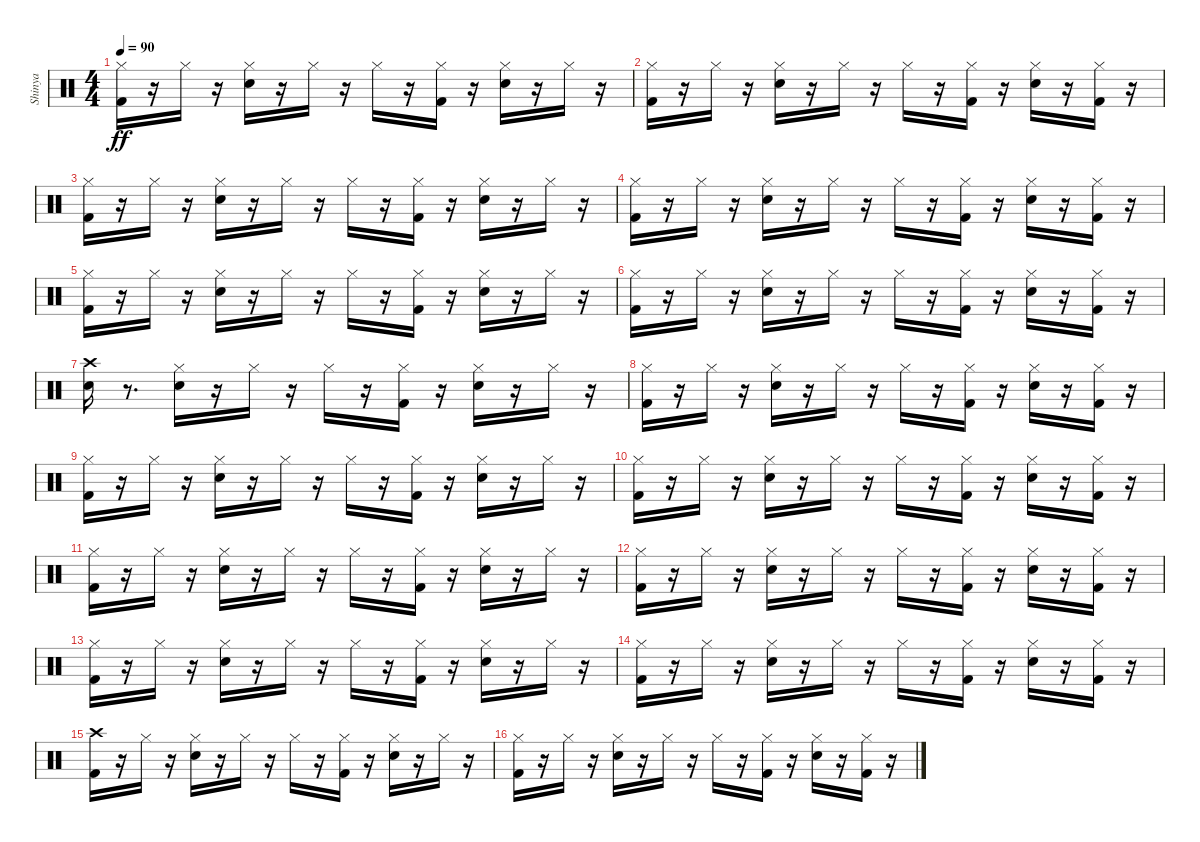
\track ("Shinya" "Shinya") {instrument percussion}
\staff {score}
\articulation defaults
\ts (4 4)
\tempo 90
\clef neutral
\ks c
("Hi-Hat (closed)" "Kick (hit) 2").16{dy ff} r.16 "Hi-Hat (closed)".16 r.16 ("Snare (hit) 2" "Hi-Hat (closed)").16 r.16 "Hi-Hat (closed)".16 r.16 "Hi-Hat (closed)".16 r.16 ("Hi-Hat (closed)" "Kick (hit) 2").16 r.16 ("Snare (hit) 2" "Hi-Hat (closed)").16 r.16 "Hi-Hat (closed)".16 r.16 |
("Hi-Hat (closed)" "Kick (hit) 2").16 r.16 "Hi-Hat (closed)".16 r.16 ("Snare (hit) 2" "Hi-Hat (closed)").16 r.16 "Hi-Hat (closed)".16 r.16 "Hi-Hat (closed)".16 r.16 ("Hi-Hat (closed)" "Kick (hit) 2").16 r.16 ("Snare (hit) 2" "Hi-Hat (closed)").16 r.16 ("Hi-Hat (closed)" "Kick (hit) 2").16 r.16 |
("Hi-Hat (closed)" "Kick (hit) 2").16 r.16 "Hi-Hat (closed)".16 r.16 ("Snare (hit) 2" "Hi-Hat (closed)").16 r.16 "Hi-Hat (closed)".16 r.16 "Hi-Hat (closed)".16 r.16 ("Hi-Hat (closed)" "Kick (hit) 2").16 r.16 ("Snare (hit) 2" "Hi-Hat (closed)").16 r.16 "Hi-Hat (closed)".16 r.16 |
("Hi-Hat (closed)" "Kick (hit) 2").16 r.16 "Hi-Hat (closed)".16 r.16 ("Snare (hit) 2" "Hi-Hat (closed)").16 r.16 "Hi-Hat (closed)".16 r.16 "Hi-Hat (closed)".16 r.16 ("Hi-Hat (closed)" "Kick (hit) 2").16 r.16 ("Snare (hit) 2" "Hi-Hat (closed)").16 r.16 ("Hi-Hat (closed)" "Kick (hit) 2").16 r.16 |
("Hi-Hat (closed)" "Kick (hit) 2").16 r.16 "Hi-Hat (closed)".16 r.16 ("Snare (hit) 2" "Hi-Hat (closed)").16 r.16 "Hi-Hat (closed)".16 r.16 "Hi-Hat (closed)".16 r.16 ("Hi-Hat (closed)" "Kick (hit) 2").16 r.16 ("Snare (hit) 2" "Hi-Hat (closed)").16 r.16 "Hi-Hat (closed)".16 r.16 |
("Hi-Hat (closed)" "Kick (hit) 2").16 r.16 "Hi-Hat (closed)".16 r.16 ("Snare (hit) 2" "Hi-Hat (closed)").16 r.16 "Hi-Hat (closed)".16 r.16 "Hi-Hat (closed)".16 r.16 ("Hi-Hat (closed)" "Kick (hit) 2").16 r.16 ("Snare (hit) 2" "Hi-Hat (closed)").16 r.16 ("Hi-Hat (closed)" "Kick (hit) 2").16 r.16 |
("Crash high (hit)" "Snare (hit)").16 r.8{d} ("Snare (hit) 2" "Hi-Hat (closed)").16 r.16 "Hi-Hat (closed)".16 r.16 "Hi-Hat (closed)".16 r.16 ("Hi-Hat (closed)" "Kick (hit) 2").16 r.16 ("Snare (hit) 2" "Hi-Hat (closed)").16 r.16 "Hi-Hat (closed)".16 r.16 |
("Hi-Hat (closed)" "Kick (hit) 2").16 r.16 "Hi-Hat (closed)".16 r.16 ("Snare (hit) 2" "Hi-Hat (closed)").16 r.16 "Hi-Hat (closed)".16 r.16 "Hi-Hat (closed)".16 r.16 ("Hi-Hat (closed)" "Kick (hit) 2").16 r.16 ("Snare (hit) 2" "Hi-Hat (closed)").16 r.16 ("Hi-Hat (closed)" "Kick (hit) 2").16 r.16 |
("Hi-Hat (closed)" "Kick (hit) 2").16 r.16 "Hi-Hat (closed)".16 r.16 ("Snare (hit) 2" "Hi-Hat (closed)").16 r.16 "Hi-Hat (closed)".16 r.16 "Hi-Hat (closed)".16 r.16 ("Hi-Hat (closed)" "Kick (hit) 2").16 r.16 ("Snare (hit) 2" "Hi-Hat (closed)").16 r.16 "Hi-Hat (closed)".16 r.16 |
("Hi-Hat (closed)" "Kick (hit) 2").16 r.16 "Hi-Hat (closed)".16 r.16 ("Snare (hit) 2" "Hi-Hat (closed)").16 r.16 "Hi-Hat (closed)".16 r.16 "Hi-Hat (closed)".16 r.16 ("Hi-Hat (closed)" "Kick (hit) 2").16 r.16 ("Snare (hit) 2" "Hi-Hat (closed)").16 r.16 ("Hi-Hat (closed)" "Kick (hit) 2").16 r.16 |
("Hi-Hat (closed)" "Kick (hit) 2").16 r.16 "Hi-Hat (closed)".16 r.16 ("Snare (hit) 2" "Hi-Hat (closed)").16 r.16 "Hi-Hat (closed)".16 r.16 "Hi-Hat (closed)".16 r.16 ("Hi-Hat (closed)" "Kick (hit) 2").16 r.16 ("Snare (hit) 2" "Hi-Hat (closed)").16 r.16 "Hi-Hat (closed)".16 r.16 |
("Hi-Hat (closed)" "Kick (hit) 2").16 r.16 "Hi-Hat (closed)".16 r.16 ("Snare (hit) 2" "Hi-Hat (closed)").16 r.16 "Hi-Hat (closed)".16 r.16 "Hi-Hat (closed)".16 r.16 ("Hi-Hat (closed)" "Kick (hit) 2").16 r.16 ("Snare (hit) 2" "Hi-Hat (closed)").16 r.16 ("Hi-Hat (closed)" "Kick (hit) 2").16 r.16 |
("Hi-Hat (closed)" "Kick (hit) 2").16 r.16 "Hi-Hat (closed)".16 r.16 ("Snare (hit) 2" "Hi-Hat (closed)").16 r.16 "Hi-Hat (closed)".16 r.16 "Hi-Hat (closed)".16 r.16 ("Hi-Hat (closed)" "Kick (hit) 2").16 r.16 ("Snare (hit) 2" "Hi-Hat (closed)").16 r.16 "Hi-Hat (closed)".16 r.16 |
("Hi-Hat (closed)" "Kick (hit) 2").16 r.16 "Hi-Hat (closed)".16 r.16 ("Snare (hit) 2" "Hi-Hat (closed)").16 r.16 "Hi-Hat (closed)".16 r.16 "Hi-Hat (closed)".16 r.16 ("Hi-Hat (closed)" "Kick (hit) 2").16 r.16 ("Snare (hit) 2" "Hi-Hat (closed)").16 r.16 ("Hi-Hat (closed)" "Kick (hit) 2").16 r.16 |
("Crash high (hit)" "Kick (hit) 2").16 r.16 "Hi-Hat (closed)".16 r.16 ("Snare (hit) 2" "Hi-Hat (closed)").16 r.16 "Hi-Hat (closed)".16 r.16 "Hi-Hat (closed)".16 r.16 ("Hi-Hat (closed)" "Kick (hit) 2").16 r.16 ("Snare (hit) 2" "Hi-Hat (closed)").16 r.16 "Hi-Hat (closed)".16 r.16 |
("Hi-Hat (closed)" "Kick (hit) 2").16 r.16 "Hi-Hat (closed)".16 r.16 ("Snare (hit) 2" "Hi-Hat (closed)").16 r.16 "Hi-Hat (closed)".16 r.16 "Hi-Hat (closed)".16 r.16 ("Hi-Hat (closed)" "Kick (hit) 2").16 r.16 ("Snare (hit) 2" "Hi-Hat (closed)").16 r.16 ("Hi-Hat (closed)" "Kick (hit) 2").16 r.16
